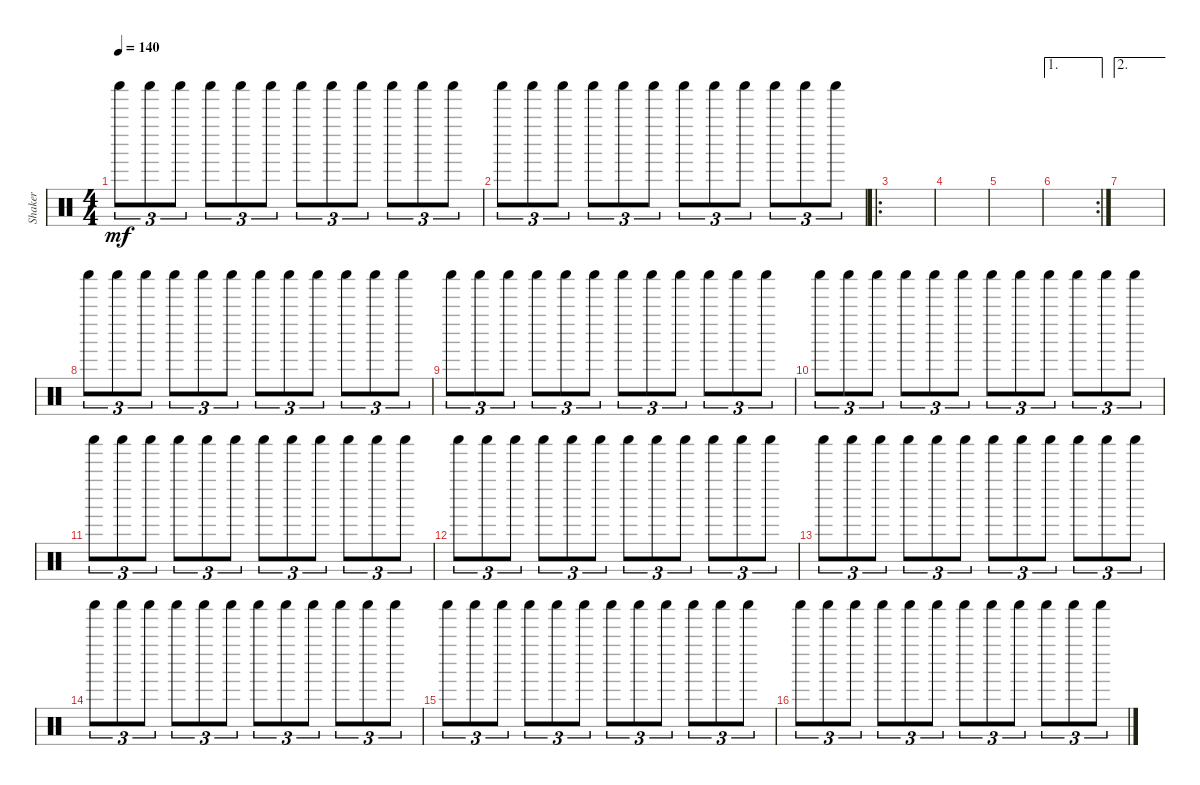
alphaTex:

\track ("Shaker" "Shaker") {instrument percussion}
\staff {score}
\articulation defaults
\ts (4 4)
\tempo 140
\clef neutral
\ks c "Shaker (hit)".8{tu (3 2) dy mf} "Shaker (hit)".8{tu (3 2)} "Shaker (hit)".8{tu (3 2)} "Shaker (hit)".8{tu (3 2)} "Shaker (hit)".8{tu (3 2)} "Shaker (hit)".8{tu (3 2)} "Shaker (hit)".8{tu (3 2)} "Shaker (hit)".8{tu (3 2)} "Shaker (hit)".8{tu (3 2)} "Shaker (hit)".8{tu (3 2)} "Shaker (hit)".8{tu (3 2)} "Shaker (hit)".8{tu (3 2)}
|
"Shaker (hit)".8{tu (3 2)} "Shaker (hit)".8{tu (3 2)} "Shaker (hit)".8{tu (3 2)} "Shaker (hit)".8{tu (3 2)} "Shaker (hit)".8{tu (3 2)} "Shaker (hit)".8{tu (3 2)} "Shaker (hit)".8{tu (3 2)} "Shaker (hit)".8{tu (3 2)} "Shaker (hit)".8{tu (3 2)} "Shaker (hit)".8{tu (3 2)} "Shaker (hit)".8{tu (3 2)} "Shaker (hit)".8{tu (3 2)} |
\ro
|
|
|
\ae 1
\rc 2
|
\ae 2
|
"Shaker (hit)".8{tu (3 2)} "Shaker (hit)".8{tu (3 2)} "Shaker (hit)".8{tu (3 2)} "Shaker (hit)".8{tu (3 2)} "Shaker (hit)".8{tu (3 2)} "Shaker (hit)".8{tu (3 2)} "Shaker (hit)".8{tu (3 2)} "Shaker (hit)".8{tu (3 2)} "Shaker (hit)".8{tu (3 2)} "Shaker (hit)".8{tu (3 2)} "Shaker (hit)".8{tu (3 2)} "Shaker (hit)".8{tu (3 2)} |
"Shaker (hit)".8{tu (3 2)} "Shaker (hit)".8{tu (3 2)} "Shaker (hit)".8{tu (3 2)} "Shaker (hit)".8{tu (3 2)} "Shaker (hit)".8{tu (3 2)} "Shaker (hit)".8{tu (3 2)} "Shaker (hit)".8{tu (3 2)} "Shaker (hit)".8{tu (3 2)} "Shaker (hit)".8{tu (3 2)} "Shaker (hit)".8{tu (3 2)} "Shaker (hit)".8{tu (3 2)} "Shaker (hit)".8{tu (3 2)} |
"Shaker (hit)".8{tu (3 2)} "Shaker (hit)".8{tu (3 2)} "Shaker (hit)".8{tu (3 2)} "Shaker (hit)".8{tu (3 2)} "Shaker (hit)".8{tu (3 2)} "Shaker (hit)".8{tu (3 2)} "Shaker (hit)".8{tu (3 2)} "Shaker (hit)".8{tu (3 2)} "Shaker (hit)".8{tu (3 2)} "Shaker (hit)".8{tu (3 2)} "Shaker (hit)".8{tu (3 2)} "Shaker (hit)".8{tu (3 2)} |
"Shaker (hit)".8{tu (3 2)} "Shaker (hit)".8{tu (3 2)} "Shaker (hit)".8{tu (3 2)} "Shaker (hit)".8{tu (3 2)} "Shaker (hit)".8{tu (3 2)} "Shaker (hit)".8{tu (3 2)} "Shaker (hit)".8{tu (3 2)} "Shaker (hit)".8{tu (3 2)} "Shaker (hit)".8{tu (3 2)} "Shaker (hit)".8{tu (3 2)} "Shaker (hit)".8{tu (3 2)} "Shaker (hit)".8{tu (3 2)} |
"Shaker (hit)".8{tu (3 2)} "Shaker (hit)".8{tu (3 2)} "Shaker (hit)".8{tu (3 2)} "Shaker (hit)".8{tu (3 2)} "Shaker (hit)".8{tu (3 2)} "Shaker (hit)".8{tu (3 2)} "Shaker (hit)".8{tu (3 2)} "Shaker (hit)".8{tu (3 2)} "Shaker (hit)".8{tu (3 2)} "Shaker (hit)".8{tu (3 2)} "Shaker (hit)".8{tu (3 2)} "Shaker (hit)".8{tu (3 2)} |
"Shaker (hit)".8{tu (3 2)} "Shaker (hit)".8{tu (3 2)} "Shaker (hit)".8{tu (3 2)} "Shaker (hit)".8{tu (3 2)} "Shaker (hit)".8{tu (3 2)} "Shaker (hit)".8{tu (3 2)} "Shaker (hit)".8{tu (3 2)} "Shaker (hit)".8{tu (3 2)} "Shaker (hit)".8{tu (3 2)} "Shaker (hit)".8{tu (3 2)} "Shaker (hit)".8{tu (3 2)} "Shaker (hit)".8{tu (3 2)} |
"Shaker (hit)".8{tu (3 2)} "Shaker (hit)".8{tu (3 2)} "Shaker (hit)".8{tu (3 2)} "Shaker (hit)".8{tu (3 2)} "Shaker (hit)".8{tu (3 2)} "Shaker (hit)".8{tu (3 2)} "Shaker (hit)".8{tu (3 2)} "Shaker (hit)".8{tu (3 2)} "Shaker (hit)".8{tu (3 2)} "Shaker (hit)".8{tu (3 2)} "Shaker (hit)".8{tu (3 2)} "Shaker (hit)".8{tu (3 2)} |
"Shaker (hit)".8{tu (3 2)} "Shaker (hit)".8{tu (3 2)} "Shaker (hit)".8{tu (3 2)} "Shaker (hit)".8{tu (3 2)} "Shaker (hit)".8{tu (3 2)} "Shaker (hit)".8{tu (3 2)} "Shaker (hit)".8{tu (3 2)} "Shaker (hit)".8{tu (3 2)} "Shaker (hit)".8{tu (3 2)} "Shaker (hit)".8{tu (3 2)} "Shaker (hit)".8{tu (3 2)} "Shaker (hit)".8{tu (3 2)} |
"Shaker (hit)".8{tu (3 2)} "Shaker (hit)".8{tu (3 2)} "Shaker (hit)".8{tu (3 2)} "Shaker (hit)".8{tu (3 2)} "Shaker (hit)".8{tu (3 2)} "Shaker (hit)".8{tu (3 2)} "Shaker (hit)".8{tu (3 2)} "Shaker (hit)".8{tu (3 2)} "Shaker (hit)".8{tu (3 2)} "Shaker (hit)".8{tu (3 2)} "Shaker (hit)".8{tu (3 2)} "Shaker (hit)".8{tu (3 2)}
